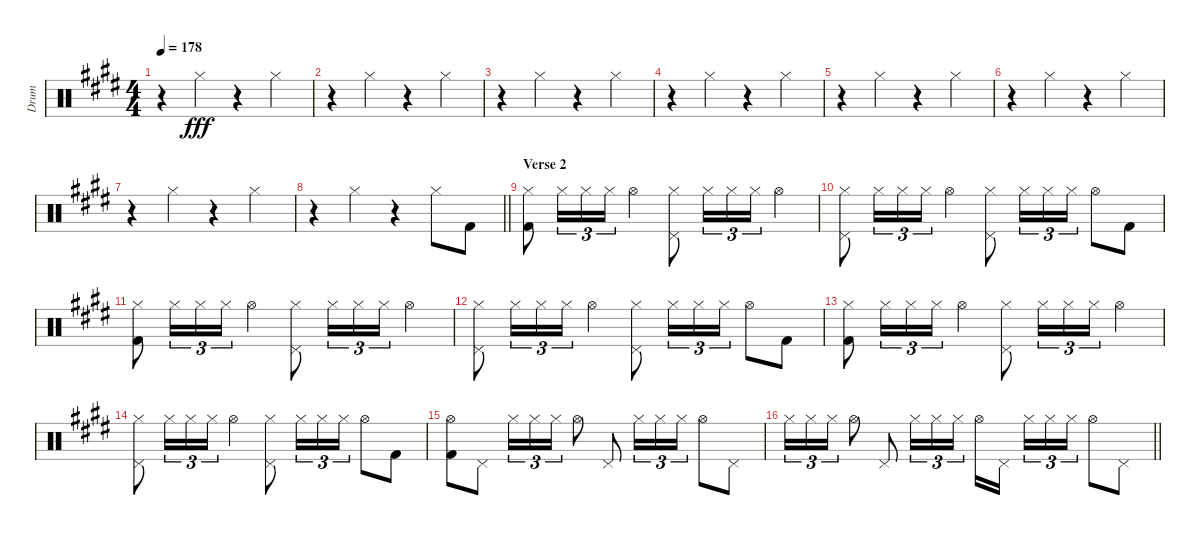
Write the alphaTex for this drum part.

\track ("Drum" "Drum") {instrument percussion}
\staff {score}
\articulation defaults
\ts (4 4)
\tempo 178
\clef neutral
\ks e
r.4{dy fff} "Hi-Hat (closed)".4 r.4 "Hi-Hat (closed)".4 |
r.4 "Hi-Hat (closed)".4 r.4 "Hi-Hat (closed)".4 |
r.4 "Hi-Hat (closed)".4 r.4 "Hi-Hat (closed)".4 |
r.4 "Hi-Hat (closed)".4 r.4 "Hi-Hat (closed)".4 |
r.4 "Hi-Hat (closed)".4 r.4 "Hi-Hat (closed)".4 |
r.4 "Hi-Hat (closed)".4 r.4 "Hi-Hat (closed)".4 |
r.4 "Hi-Hat (closed)".4 r.4 "Hi-Hat (closed)".4 |
\barLineRight lightlight
r.4 "Hi-Hat (closed)".4 r.4 "Hi-Hat (closed)".8 "Kick (hit) 2".8 |
\section ("" "Verse 2")
("Hi-Hat (closed)" "Kick (hit) 2").8 "Hi-Hat (closed)".16{tu (3 2)} "Hi-Hat (closed)".16{tu (3 2)} "Hi-Hat (closed)".16{tu (3 2)} "Hi-Hat (open)".4 ("Hi-Hat (closed)" "Pedal Hi-Hat (hit)").8 "Hi-Hat (closed)".16{tu (3 2)} "Hi-Hat (closed)".16{tu (3 2)} "Hi-Hat (closed)".16{tu (3 2)} "Hi-Hat (open)".4 |
("Hi-Hat (closed)" "Pedal Hi-Hat (hit)").8 "Hi-Hat (closed)".16{tu (3 2)} "Hi-Hat (closed)".16{tu (3 2)} "Hi-Hat (closed)".16{tu (3 2)} "Hi-Hat (open)".4 ("Hi-Hat (closed)" "Pedal Hi-Hat (hit)").8 "Hi-Hat (closed)".16{tu (3 2)} "Hi-Hat (closed)".16{tu (3 2)} "Hi-Hat (closed)".16{tu (3 2)} "Hi-Hat (open)".8 "Kick (hit) 2".8 |
("Hi-Hat (closed)" "Kick (hit) 2").8 "Hi-Hat (closed)".16{tu (3 2)} "Hi-Hat (closed)".16{tu (3 2)} "Hi-Hat (closed)".16{tu (3 2)} "Hi-Hat (open)".4 ("Hi-Hat (closed)" "Pedal Hi-Hat (hit)").8 "Hi-Hat (closed)".16{tu (3 2)} "Hi-Hat (closed)".16{tu (3 2)} "Hi-Hat (closed)".16{tu (3 2)} "Hi-Hat (open)".4 |
("Hi-Hat (closed)" "Pedal Hi-Hat (hit)").8 "Hi-Hat (closed)".16{tu (3 2)} "Hi-Hat (closed)".16{tu (3 2)} "Hi-Hat (closed)".16{tu (3 2)} "Hi-Hat (open)".4 ("Hi-Hat (closed)" "Pedal Hi-Hat (hit)").8 "Hi-Hat (closed)".16{tu (3 2)} "Hi-Hat (closed)".16{tu (3 2)} "Hi-Hat (closed)".16{tu (3 2)} "Hi-Hat (open)".8 "Kick (hit) 2".8 |
("Hi-Hat (closed)" "Kick (hit) 2").8 "Hi-Hat (closed)".16{tu (3 2)} "Hi-Hat (closed)".16{tu (3 2)} "Hi-Hat (closed)".16{tu (3 2)} "Hi-Hat (open)".4 ("Hi-Hat (closed)" "Pedal Hi-Hat (hit)").8 "Hi-Hat (closed)".16{tu (3 2)} "Hi-Hat (closed)".16{tu (3 2)} "Hi-Hat (closed)".16{tu (3 2)} "Hi-Hat (open)".4 |
("Hi-Hat (closed)" "Pedal Hi-Hat (hit)").8 "Hi-Hat (closed)".16{tu (3 2)} "Hi-Hat (closed)".16{tu (3 2)} "Hi-Hat (closed)".16{tu (3 2)} "Hi-Hat (open)".4 ("Hi-Hat (closed)" "Pedal Hi-Hat (hit)").8 "Hi-Hat (closed)".16{tu (3 2)} "Hi-Hat (closed)".16{tu (3 2)} "Hi-Hat (closed)".16{tu (3 2)} "Hi-Hat (open)".8 "Kick (hit) 2".8 |
("Hi-Hat (open)" "Kick (hit) 2").8 "Pedal Hi-Hat (hit)".8 "Hi-Hat (closed)".16{tu (3 2)} "Hi-Hat (closed)".16{tu (3 2)} "Hi-Hat (closed)".16{tu (3 2)} "Hi-Hat (open)".8 "Pedal Hi-Hat (hit)".8 "Hi-Hat (closed)".16{tu (3 2)} "Hi-Hat (closed)".16{tu (3 2)} "Hi-Hat (closed)".16{tu (3 2)} "Hi-Hat (open)".8 "Pedal Hi-Hat (hit)".8 |
\barLineRight lightlight "Hi-Hat (closed)".16{tu (3 2)} "Hi-Hat (closed)".16{tu (3 2)} "Hi-Hat (closed)".16{tu (3 2)} "Hi-Hat (open)".8 "Pedal Hi-Hat (hit)".8 "Hi-Hat (closed)".16{tu (3 2)} "Hi-Hat (closed)".16{tu (3 2)} "Hi-Hat (closed)".16{tu (3 2)} "Hi-Hat (open)".16 "Pedal Hi-Hat (hit)".16{beam splitsecondary} "Hi-Hat (closed)".16{tu (3 2)} "Hi-Hat (closed)".16{tu (3 2)} "Hi-Hat (closed)".16{tu (3 2)} "Hi-Hat (open)".8 "Pedal Hi-Hat (hit)".8
